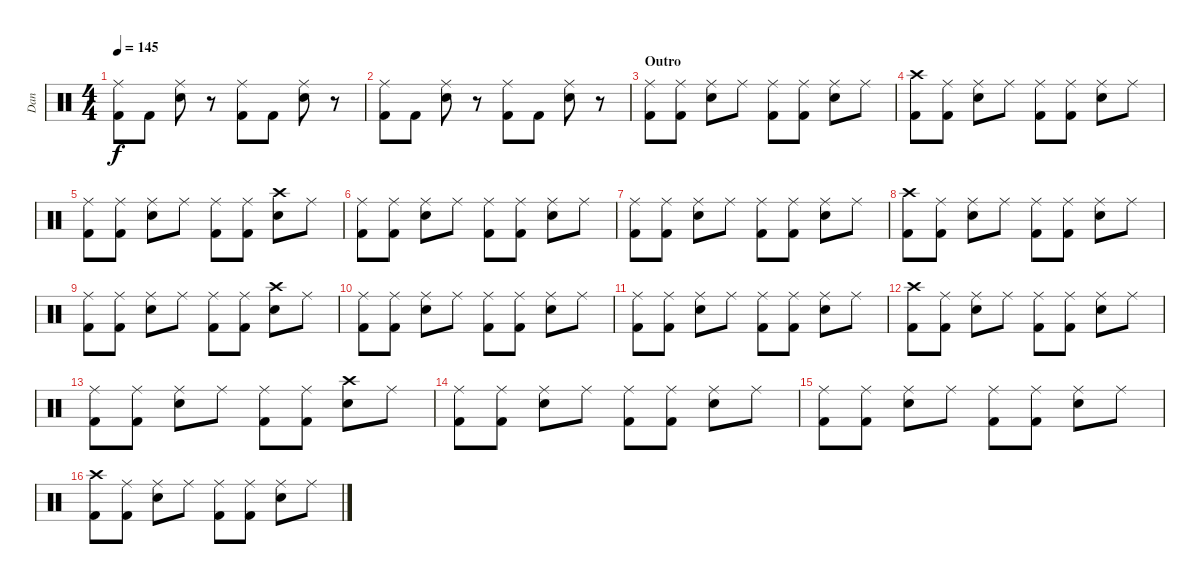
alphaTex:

\track ("Dan" "Dan") {instrument percussion}
\staff {score}
\articulation defaults
\ts (4 4)
\tempo 145
\clef neutral
\ks c
("Ride (middle)" "Kick (hit) 2").8{dy f} "Kick (hit) 2".8 ("Ride (middle)" "Snare (hit) 2").8 r.8 ("Ride (middle)" "Kick (hit) 2").8 "Kick (hit) 2".8 ("Ride (middle)" "Snare (hit) 2").8 r.8 |
("Ride (middle)" "Kick (hit) 2").8 "Kick (hit) 2".8 ("Ride (middle)" "Snare (hit) 2").8 r.8 ("Ride (middle)" "Kick (hit) 2").8 "Kick (hit) 2".8 ("Ride (middle)" "Snare (hit) 2").8 r.8 |
\section ("" "Outro")
("Ride (middle)" "Kick (hit) 2").8 ("Ride (middle)" "Kick (hit) 2").8 ("Ride (middle)" "Snare (hit) 2").8 "Ride (middle)".8 ("Ride (middle)" "Kick (hit) 2").8 ("Ride (middle)" "Kick (hit) 2").8 ("Ride (middle)" "Snare (hit) 2").8 "Ride (middle)".8 |
("Crash high (hit)" "Kick (hit) 2").8 ("Ride (middle)" "Kick (hit) 2").8 ("Ride (middle)" "Snare (hit) 2").8 "Ride (middle)".8 ("Ride (middle)" "Kick (hit) 2").8 ("Ride (middle)" "Kick (hit) 2").8 ("Ride (middle)" "Snare (hit) 2").8 "Ride (middle)".8 |
("Ride (middle)" "Kick (hit) 2").8 ("Ride (middle)" "Kick (hit) 2").8 ("Ride (middle)" "Snare (hit) 2").8 "Ride (middle)".8 ("Ride (middle)" "Kick (hit) 2").8 ("Ride (middle)" "Kick (hit) 2").8 ("Crash high (hit)" "Snare (hit) 2").8 "Ride (middle)".8 |
("Ride (middle)" "Kick (hit) 2").8 ("Ride (middle)" "Kick (hit) 2").8 ("Ride (middle)" "Snare (hit) 2").8 "Ride (middle)".8 ("Ride (middle)" "Kick (hit) 2").8 ("Ride (middle)" "Kick (hit) 2").8 ("Ride (middle)" "Snare (hit) 2").8 "Ride (middle)".8 |
("Ride (middle)" "Kick (hit) 2").8 ("Ride (middle)" "Kick (hit) 2").8 ("Ride (middle)" "Snare (hit) 2").8 "Ride (middle)".8 ("Ride (middle)" "Kick (hit) 2").8 ("Ride (middle)" "Kick (hit) 2").8 ("Ride (middle)" "Snare (hit) 2").8 "Ride (middle)".8 |
("Crash high (hit)" "Kick (hit) 2").8 ("Ride (middle)" "Kick (hit) 2").8 ("Ride (middle)" "Snare (hit) 2").8 "Ride (middle)".8 ("Ride (middle)" "Kick (hit) 2").8 ("Ride (middle)" "Kick (hit) 2").8 ("Ride (middle)" "Snare (hit) 2").8 "Ride (middle)".8 |
("Ride (middle)" "Kick (hit) 2").8 ("Ride (middle)" "Kick (hit) 2").8 ("Ride (middle)" "Snare (hit) 2").8 "Ride (middle)".8 ("Ride (middle)" "Kick (hit) 2").8 ("Ride (middle)" "Kick (hit) 2").8 ("Crash high (hit)" "Snare (hit) 2").8 "Ride (middle)".8 |
("Ride (middle)" "Kick (hit) 2").8 ("Ride (middle)" "Kick (hit) 2").8 ("Ride (middle)" "Snare (hit) 2").8 "Ride (middle)".8 ("Ride (middle)" "Kick (hit) 2").8 ("Ride (middle)" "Kick (hit) 2").8 ("Ride (middle)" "Snare (hit) 2").8 "Ride (middle)".8 |
("Ride (middle)" "Kick (hit) 2").8 ("Ride (middle)" "Kick (hit) 2").8 ("Ride (middle)" "Snare (hit) 2").8 "Ride (middle)".8 ("Ride (middle)" "Kick (hit) 2").8 ("Ride (middle)" "Kick (hit) 2").8 ("Ride (middle)" "Snare (hit) 2").8 "Ride (middle)".8 |
("Crash high (hit)" "Kick (hit) 2").8 ("Ride (middle)" "Kick (hit) 2").8 ("Ride (middle)" "Snare (hit) 2").8 "Ride (middle)".8 ("Ride (middle)" "Kick (hit) 2").8 ("Ride (middle)" "Kick (hit) 2").8 ("Ride (middle)" "Snare (hit) 2").8 "Ride (middle)".8 |
("Ride (middle)" "Kick (hit) 2").8 ("Ride (middle)" "Kick (hit) 2").8 ("Ride (middle)" "Snare (hit) 2").8 "Ride (middle)".8 ("Ride (middle)" "Kick (hit) 2").8 ("Ride (middle)" "Kick (hit) 2").8 ("Crash high (hit)" "Snare (hit) 2").8 "Ride (middle)".8 |
("Ride (middle)" "Kick (hit) 2").8 ("Ride (middle)" "Kick (hit) 2").8 ("Ride (middle)" "Snare (hit) 2").8 "Ride (middle)".8 ("Ride (middle)" "Kick (hit) 2").8 ("Ride (middle)" "Kick (hit) 2").8 ("Ride (middle)" "Snare (hit) 2").8 "Ride (middle)".8 |
("Ride (middle)" "Kick (hit) 2").8 ("Ride (middle)" "Kick (hit) 2").8 ("Ride (middle)" "Snare (hit) 2").8 "Ride (middle)".8 ("Ride (middle)" "Kick (hit) 2").8 ("Ride (middle)" "Kick (hit) 2").8 ("Ride (middle)" "Snare (hit) 2").8 "Ride (middle)".8 |
("Crash high (hit)" "Kick (hit) 2").8 ("Ride (middle)" "Kick (hit) 2").8 ("Ride (middle)" "Snare (hit) 2").8 "Ride (middle)".8 ("Ride (middle)" "Kick (hit) 2").8 ("Ride (middle)" "Kick (hit) 2").8 ("Ride (middle)" "Snare (hit) 2").8 "Ride (middle)".8
